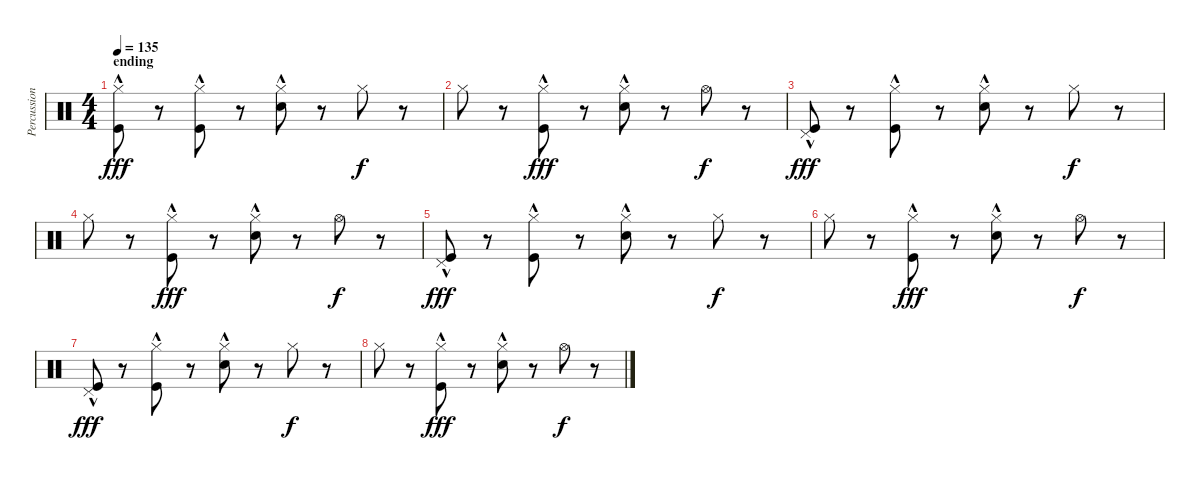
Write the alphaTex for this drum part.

\track ("Percussion" "Percussion") {instrument percussion}
\staff {score}
\articulation defaults
\ts (4 4)
\section ("" "ending")
\tempo 135
\clef neutral
\ks c
("Hi-Hat (closed)" "Kick (hit)"{hac}).8{dy fff} r.8 ("Hi-Hat (closed)" "Kick (hit)"{hac}).8 r.8 ("Hi-Hat (closed)" "Snare (hit) 2"{hac}).8 r.8 "Hi-Hat (closed)".8{dy f} r.8 |
"Hi-Hat (closed)".8 r.8 ("Hi-Hat (closed)" "Kick (hit)"{hac}).8{dy fff} r.8 ("Hi-Hat (closed)" "Snare (hit) 2"{hac}).8 r.8 "Hi-Hat (open)".8{dy f} r.8 |
("Pedal Hi-Hat (hit)" "Kick (hit)"{hac}).8{dy fff} r.8 ("Hi-Hat (closed)" "Kick (hit)"{hac}).8 r.8 ("Hi-Hat (closed)" "Snare (hit) 2"{hac}).8 r.8 "Hi-Hat (closed)".8{dy f} r.8 |
"Hi-Hat (closed)".8 r.8 ("Hi-Hat (closed)" "Kick (hit)"{hac}).8{dy fff} r.8 ("Hi-Hat (closed)" "Snare (hit) 2"{hac}).8 r.8 "Hi-Hat (open)".8{dy f} r.8 |
("Pedal Hi-Hat (hit)" "Kick (hit)"{hac}).8{dy fff volume 0} r.8 ("Hi-Hat (closed)" "Kick (hit)"{hac}).8 r.8 ("Hi-Hat (closed)" "Snare (hit) 2"{hac}).8 r.8 "Hi-Hat (closed)".8{dy f} r.8 |
"Hi-Hat (closed)".8 r.8 ("Hi-Hat (closed)" "Kick (hit)"{hac}).8{dy fff} r.8 ("Hi-Hat (closed)" "Snare (hit) 2"{hac}).8 r.8 "Hi-Hat (open)".8{dy f} r.8 |
("Pedal Hi-Hat (hit)" "Kick (hit)"{hac}).8{dy fff} r.8 ("Hi-Hat (closed)" "Kick (hit)"{hac}).8 r.8 ("Hi-Hat (closed)" "Snare (hit) 2"{hac}).8 r.8 "Hi-Hat (closed)".8{dy f} r.8 |
"Hi-Hat (closed)".8 r.8 ("Hi-Hat (closed)" "Kick (hit)"{hac}).8{dy fff} r.8 ("Hi-Hat (closed)" "Snare (hit) 2"{hac}).8 r.8 "Hi-Hat (open)".8{dy f} r.8
